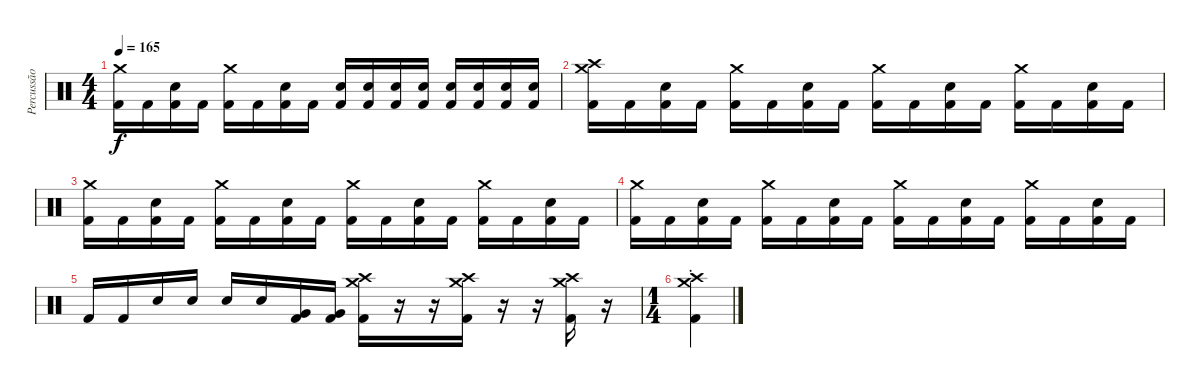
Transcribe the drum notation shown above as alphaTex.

\track ("Percussão" "Percussão") {instrument percussion}
\staff {score}
\articulation defaults
\ts (4 4)
\tempo 165
\clef neutral
\ks c
("Crash medium (hit)" "Kick (hit) 2").16{dy f} "Kick (hit) 2".16 ("Electric Snare (hit)" "Kick (hit) 2").16 "Kick (hit) 2".16 ("Crash medium (hit)" "Kick (hit) 2").16 "Kick (hit) 2".16 ("Electric Snare (hit)" "Kick (hit) 2").16 "Kick (hit) 2".16 ("Electric Snare (hit)" "Kick (hit) 2").16 ("Electric Snare (hit)" "Kick (hit) 2").16 ("Electric Snare (hit)" "Kick (hit) 2").16 ("Electric Snare (hit)" "Kick (hit) 2").16 ("Electric Snare (hit)" "Kick (hit) 2").16 ("Electric Snare (hit)" "Kick (hit) 2").16 ("Electric Snare (hit)" "Kick (hit) 2").16 ("Electric Snare (hit)" "Kick (hit) 2").16 |
("Crash medium (hit)" "Crash high (hit)" "Kick (hit) 2").16 "Kick (hit) 2".16 ("Electric Snare (hit)" "Kick (hit) 2").16 "Kick (hit) 2".16 ("Crash medium (hit)" "Kick (hit) 2").16 "Kick (hit) 2".16 ("Electric Snare (hit)" "Kick (hit) 2").16 "Kick (hit) 2".16 ("Crash medium (hit)" "Kick (hit) 2").16 "Kick (hit) 2".16 ("Electric Snare (hit)" "Kick (hit) 2").16 "Kick (hit) 2".16 ("Crash medium (hit)" "Kick (hit) 2").16 "Kick (hit) 2".16 ("Electric Snare (hit)" "Kick (hit) 2").16 "Kick (hit) 2".16 |
("Crash medium (hit)" "Kick (hit) 2").16 "Kick (hit) 2".16 ("Electric Snare (hit)" "Kick (hit) 2").16 "Kick (hit) 2".16 ("Crash medium (hit)" "Kick (hit) 2").16 "Kick (hit) 2".16 ("Electric Snare (hit)" "Kick (hit) 2").16 "Kick (hit) 2".16 ("Crash medium (hit)" "Kick (hit) 2").16 "Kick (hit) 2".16 ("Electric Snare (hit)" "Kick (hit) 2").16 "Kick (hit) 2".16 ("Crash medium (hit)" "Kick (hit) 2").16 "Kick (hit) 2".16 ("Electric Snare (hit)" "Kick (hit) 2").16 "Kick (hit) 2".16 |
("Crash medium (hit)" "Kick (hit) 2").16 "Kick (hit) 2".16 ("Electric Snare (hit)" "Kick (hit) 2").16 "Kick (hit) 2".16 ("Crash medium (hit)" "Kick (hit) 2").16 "Kick (hit) 2".16 ("Electric Snare (hit)" "Kick (hit) 2").16 "Kick (hit) 2".16 ("Crash medium (hit)" "Kick (hit) 2").16 "Kick (hit) 2".16 ("Electric Snare (hit)" "Kick (hit) 2").16 "Kick (hit) 2".16 ("Crash medium (hit)" "Kick (hit) 2").16 "Kick (hit) 2".16 ("Electric Snare (hit)" "Kick (hit) 2").16 "Kick (hit) 2".16 |
"Kick (hit) 2".16 "Kick (hit) 2".16 "Electric Snare (hit)".16 "Electric Snare (hit)".16 "Electric Snare (hit)".16 "Electric Snare (hit)".16 ("Very Low Tom (hit)" "Kick (hit) 2").16 ("Very Low Tom (hit)" "Kick (hit) 2").16 ("Crash medium (hit)" "Crash high (hit)" "Kick (hit) 2").16 r.16 r.16 ("Crash medium (hit)" "Crash high (hit)" "Kick (hit) 2").16 r.16 r.16 ("Crash medium (hit)" "Crash high (hit)" "Kick (hit) 2").16 r.16 |
\ts (1 4)
("Crash medium (hit)"{st} "Crash high (hit)"{st} "Kick (hit) 2"{st}).4
